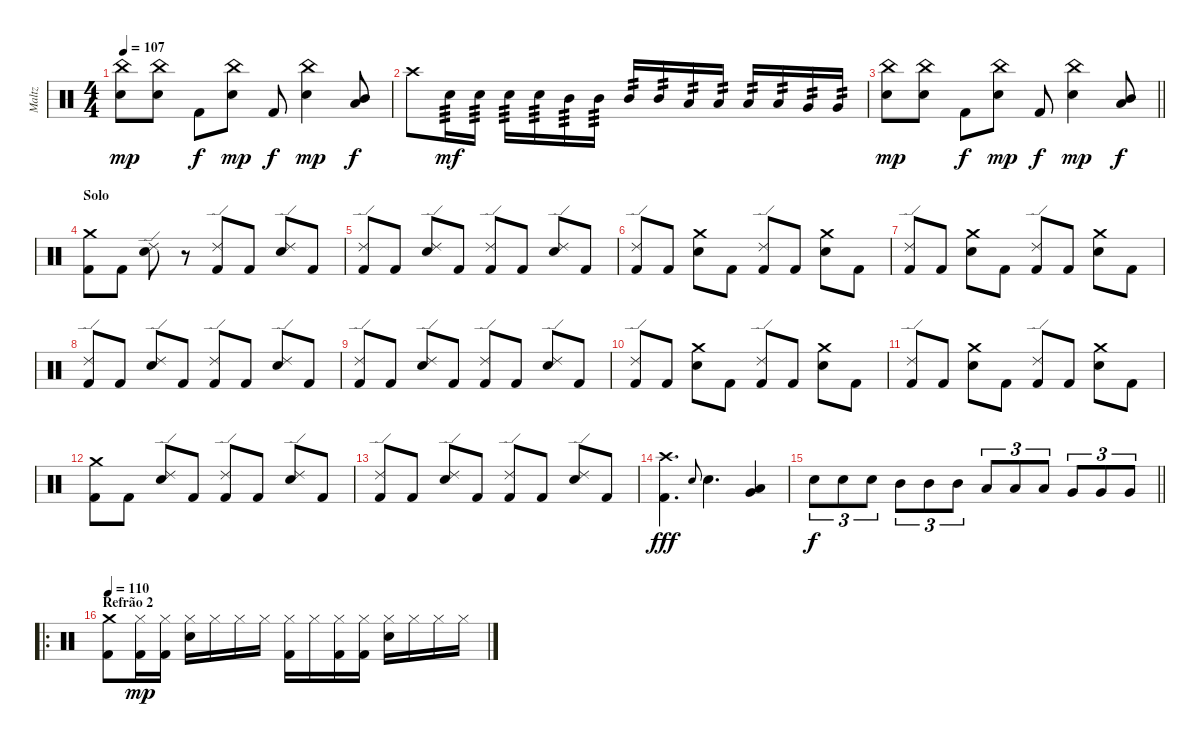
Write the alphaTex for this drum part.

\track ("Maltz" "Maltz") {instrument percussion}
\staff {score}
\articulation defaults
\ts (4 4)
\tempo 107
\clef neutral
\ks c
("China (hit)" "Snare (hit) 2").8{dy mp} ("China (hit)" "Snare (hit) 2").8 "Kick (hit) 2".8{dy f} ("China (hit)" "Snare (hit) 2").8{dy mp} "Kick (hit) 2".8{dy f} ("China (hit)" "Snare (hit) 2").4{dy mp} ("Mid Tom (hit)" "Low Tom (hit)").8{dy f} |
"Crash high (hit)".8 "Snare (hit) 2".16{tp 3 dy mf} "Snare (hit) 2".16{tp 3} "Snare (hit) 2".16{tp 3} "Snare (hit) 2".16{tp 3} "Mid Tom (hit)".16{tp 3} "Mid Tom (hit)".16{tp 3} "Mid Tom (hit)".16{tp 2} "Mid Tom (hit)".16{tp 2} "Low Tom (hit)".16{tp 2} "Low Tom (hit)".16{tp 2} "Low Tom (hit)".16{tp 2} "Low Tom (hit)".16{tp 2} "Very Low Tom (hit)".16{tp 2} "Very Low Tom (hit)".16{tp 2} |
\barLineRight lightlight
("China (hit)" "Snare (hit) 2").8{dy mp} ("China (hit)" "Snare (hit) 2").8 "Kick (hit) 2".8{dy f} ("China (hit)" "Snare (hit) 2").8{dy mp} "Kick (hit) 2".8{dy f} ("China (hit)" "Snare (hit) 2").4{dy mp} ("Mid Tom (hit)" "Low Tom (hit)").8{dy f} |
\section ("" "Solo")
("Crash medium (hit)" "Kick (hit) 2").8 "Kick (hit) 2".8 ("Ride (edge) 2" "Snare (hit) 2").8 r.8 ("Ride (edge) 2" "Kick (hit) 2").8 "Kick (hit) 2".8 ("Ride (edge) 2" "Snare (hit) 2").8 "Kick (hit) 2".8 |
("Ride (edge) 2" "Kick (hit) 2").8 "Kick (hit) 2".8 ("Ride (edge) 2" "Snare (hit) 2").8 "Kick (hit) 2".8 ("Ride (edge) 2" "Kick (hit) 2").8 "Kick (hit) 2".8 ("Ride (edge) 2" "Snare (hit) 2").8 "Kick (hit) 2".8 |
("Ride (edge) 2" "Kick (hit) 2").8 "Kick (hit) 2".8 ("Crash medium (hit)" "Snare (hit) 2").8 "Kick (hit) 2".8 ("Ride (edge) 2" "Kick (hit) 2").8 "Kick (hit) 2".8 ("Crash medium (hit)" "Snare (hit) 2").8 "Kick (hit) 2".8 |
("Ride (edge) 2" "Kick (hit) 2").8 "Kick (hit) 2".8 ("Crash medium (hit)" "Snare (hit) 2").8 "Kick (hit) 2".8 ("Ride (edge) 2" "Kick (hit) 2").8 "Kick (hit) 2".8 ("Crash medium (hit)" "Snare (hit) 2").8 "Kick (hit) 2".8 |
("Ride (edge) 2" "Kick (hit) 2").8 "Kick (hit) 2".8 ("Ride (edge) 2" "Snare (hit) 2").8 "Kick (hit) 2".8 ("Ride (edge) 2" "Kick (hit) 2").8 "Kick (hit) 2".8 ("Ride (edge) 2" "Snare (hit) 2").8 "Kick (hit) 2".8 |
("Ride (edge) 2" "Kick (hit) 2").8 "Kick (hit) 2".8 ("Ride (edge) 2" "Snare (hit) 2").8 "Kick (hit) 2".8 ("Ride (edge) 2" "Kick (hit) 2").8 "Kick (hit) 2".8 ("Ride (edge) 2" "Snare (hit) 2").8 "Kick (hit) 2".8 |
("Ride (edge) 2" "Kick (hit) 2").8 "Kick (hit) 2".8 ("Crash medium (hit)" "Snare (hit) 2").8 "Kick (hit) 2".8 ("Ride (edge) 2" "Kick (hit) 2").8 "Kick (hit) 2".8 ("Crash medium (hit)" "Snare (hit) 2").8 "Kick (hit) 2".8 |
("Ride (edge) 2" "Kick (hit) 2").8 "Kick (hit) 2".8 ("Crash medium (hit)" "Snare (hit) 2").8 "Kick (hit) 2".8 ("Ride (edge) 2" "Kick (hit) 2").8 "Kick (hit) 2".8 ("Crash medium (hit)" "Snare (hit) 2").8 "Kick (hit) 2".8 |
("Crash medium (hit)" "Kick (hit) 2").8 "Kick (hit) 2".8 ("Ride (edge) 2" "Snare (hit) 2").8 "Kick (hit) 2".8 ("Ride (edge) 2" "Kick (hit) 2").8 "Kick (hit) 2".8 ("Ride (edge) 2" "Snare (hit) 2").8 "Kick (hit) 2".8 |
("Ride (edge) 2" "Kick (hit) 2").8 "Kick (hit) 2".8 ("Ride (edge) 2" "Snare (hit) 2").8 "Kick (hit) 2".8 ("Ride (edge) 2" "Kick (hit) 2").8 "Kick (hit) 2".8 ("Ride (edge) 2" "Snare (hit) 2").8 "Kick (hit) 2".8 |
("Crash high (hit)" "Kick (hit) 2").4{d dy fff} "Electric Snare (hit)".8{gr onbeat} "Electric Snare (hit)".4{d} ("Low Tom (hit)" "Very Low Tom (hit)").4 |
\barLineRight lightlight "Snare (hit) 2".8{tu (3 2) dy f} "Snare (hit) 2".8{tu (3 2)} "Snare (hit) 2".8{tu (3 2)} "Mid Tom (hit)".8{tu (3 2)} "Mid Tom (hit)".8{tu (3 2)} "Mid Tom (hit)".8{tu (3 2)} "Low Tom (hit)".8{tu (3 2)} "Low Tom (hit)".8{tu (3 2)} "Low Tom (hit)".8{tu (3 2)} "Very Low Tom (hit)".8{tu (3 2)} "Very Low Tom (hit)".8{tu (3 2)} "Very Low Tom (hit)".8{tu (3 2)}
|
\ro
\section ("" "Refrão 2")
\tempo 110
("Crash medium (hit)" "Kick (hit) 2").8 ("Hi-Hat (closed)" "Kick (hit) 2").16{dy mp} ("Hi-Hat (closed)" "Kick (hit) 2").16 ("Hi-Hat (closed)" "Snare (hit) 2").16 "Hi-Hat (closed)".16 "Hi-Hat (closed)".16 "Hi-Hat (closed)".16 ("Hi-Hat (closed)" "Kick (hit) 2").16 "Hi-Hat (closed)".16 ("Hi-Hat (closed)" "Kick (hit) 2").16 ("Hi-Hat (closed)" "Kick (hit) 2").16 ("Hi-Hat (closed)" "Snare (hit) 2").16 "Hi-Hat (closed)".16 "Hi-Hat (closed)".16 "Hi-Hat (closed)".16
